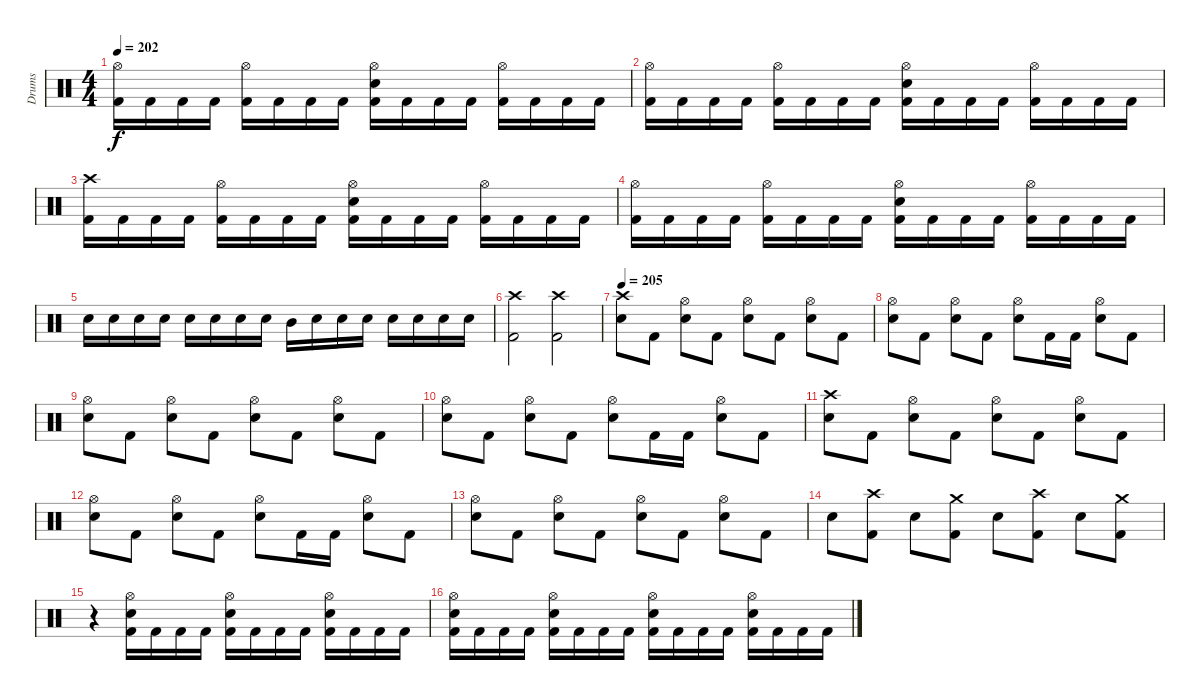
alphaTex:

\track ("Drums" "Drums") {instrument percussion}
\staff {score}
\articulation defaults
\ts (4 4)
\tempo 202
\clef neutral
\ks c
("Hi-Hat (open)" "Kick (hit) 2").16{dy f} "Kick (hit) 2".16 "Kick (hit) 2".16 "Kick (hit) 2".16 ("Hi-Hat (open)" "Kick (hit) 2").16 "Kick (hit) 2".16 "Kick (hit) 2".16 "Kick (hit) 2".16 ("Hi-Hat (open)" "Snare (hit) 2" "Kick (hit) 2").16 "Kick (hit) 2".16 "Kick (hit) 2".16 "Kick (hit) 2".16 ("Hi-Hat (open)" "Kick (hit) 2").16 "Kick (hit) 2".16 "Kick (hit) 2".16 "Kick (hit) 2".16 |
("Hi-Hat (open)" "Kick (hit) 2").16 "Kick (hit) 2".16 "Kick (hit) 2".16 "Kick (hit) 2".16 ("Hi-Hat (open)" "Kick (hit) 2").16 "Kick (hit) 2".16 "Kick (hit) 2".16 "Kick (hit) 2".16 ("Hi-Hat (open)" "Snare (hit) 2" "Kick (hit) 2").16 "Kick (hit) 2".16 "Kick (hit) 2".16 "Kick (hit) 2".16 ("Hi-Hat (open)" "Kick (hit) 2").16 "Kick (hit) 2".16 "Kick (hit) 2".16 "Kick (hit) 2".16 |
("Crash high (hit)" "Kick (hit) 2").16 "Kick (hit) 2".16 "Kick (hit) 2".16 "Kick (hit) 2".16 ("Hi-Hat (open)" "Kick (hit) 2").16 "Kick (hit) 2".16 "Kick (hit) 2".16 "Kick (hit) 2".16 ("Hi-Hat (open)" "Snare (hit) 2" "Kick (hit) 2").16 "Kick (hit) 2".16 "Kick (hit) 2".16 "Kick (hit) 2".16 ("Hi-Hat (open)" "Kick (hit) 2").16 "Kick (hit) 2".16 "Kick (hit) 2".16 "Kick (hit) 2".16 |
("Hi-Hat (open)" "Kick (hit) 2").16 "Kick (hit) 2".16 "Kick (hit) 2".16 "Kick (hit) 2".16 ("Hi-Hat (open)" "Kick (hit) 2").16 "Kick (hit) 2".16 "Kick (hit) 2".16 "Kick (hit) 2".16 ("Hi-Hat (open)" "Snare (hit) 2" "Kick (hit) 2").16 "Kick (hit) 2".16 "Kick (hit) 2".16 "Kick (hit) 2".16 ("Hi-Hat (open)" "Kick (hit) 2").16 "Kick (hit) 2".16 "Kick (hit) 2".16 "Kick (hit) 2".16 |
"Snare (hit) 2".16 "Snare (hit) 2".16 "Snare (hit) 2".16 "Snare (hit) 2".16 "Snare (hit) 2".16 "Snare (hit) 2".16 "Snare (hit) 2".16 "Snare (hit) 2".16 "Mid Tom (hit)".16 "Snare (hit) 2".16 "Snare (hit) 2".16 "Snare (hit) 2".16 "Snare (hit) 2".16 "Snare (hit) 2".16 "Snare (hit) 2".16 "Snare (hit) 2".16 |
("Crash high (hit)"{x} "Kick (hit) 2").2 ("Crash high (hit)"{x} "Kick (hit) 2").2 |
\tempo 205
("Crash high (hit)" "Snare (hit) 2").8 "Kick (hit) 2".8 ("Hi-Hat (open)" "Snare (hit) 2").8 "Kick (hit) 2".8 ("Hi-Hat (open)" "Snare (hit) 2").8 "Kick (hit) 2".8 ("Hi-Hat (open)" "Snare (hit) 2").8 "Kick (hit) 2".8 |
("Hi-Hat (open)" "Snare (hit) 2").8 "Kick (hit) 2".8 ("Hi-Hat (open)" "Snare (hit) 2").8 "Kick (hit) 2".8 ("Hi-Hat (open)" "Snare (hit) 2").8 "Kick (hit) 2".16 "Kick (hit) 2".16 ("Hi-Hat (open)" "Snare (hit) 2").8 "Kick (hit) 2".8 |
("Hi-Hat (open)" "Snare (hit) 2").8 "Kick (hit) 2".8 ("Hi-Hat (open)" "Snare (hit) 2").8 "Kick (hit) 2".8 ("Hi-Hat (open)" "Snare (hit) 2").8 "Kick (hit) 2".8 ("Hi-Hat (open)" "Snare (hit) 2").8 "Kick (hit) 2".8 |
("Hi-Hat (open)" "Snare (hit) 2").8 "Kick (hit) 2".8 ("Hi-Hat (open)" "Snare (hit) 2").8 "Kick (hit) 2".8 ("Hi-Hat (open)" "Snare (hit) 2").8 "Kick (hit) 2".16 "Kick (hit) 2".16 ("Hi-Hat (open)" "Snare (hit) 2").8 "Kick (hit) 2".8 |
("Crash high (hit)" "Snare (hit) 2").8 "Kick (hit) 2".8 ("Hi-Hat (open)" "Snare (hit) 2").8 "Kick (hit) 2".8 ("Hi-Hat (open)" "Snare (hit) 2").8 "Kick (hit) 2".8 ("Hi-Hat (open)" "Snare (hit) 2").8 "Kick (hit) 2".8 |
("Hi-Hat (open)" "Snare (hit) 2").8 "Kick (hit) 2".8 ("Hi-Hat (open)" "Snare (hit) 2").8 "Kick (hit) 2".8 ("Hi-Hat (open)" "Snare (hit) 2").8 "Kick (hit) 2".16 "Kick (hit) 2".16 ("Hi-Hat (open)" "Snare (hit) 2").8 "Kick (hit) 2".8 |
("Hi-Hat (open)" "Snare (hit) 2").8 "Kick (hit) 2".8 ("Hi-Hat (open)" "Snare (hit) 2").8 "Kick (hit) 2".8 ("Hi-Hat (open)" "Snare (hit) 2").8 "Kick (hit) 2".8 ("Hi-Hat (open)" "Snare (hit) 2").8 "Kick (hit) 2".8 |
"Snare (hit) 2".8 ("Crash high (hit)" "Kick (hit) 2").8 "Snare (hit) 2".8 ("Crash medium (hit)" "Kick (hit) 2").8 "Snare (hit) 2".8 ("Crash high (hit)" "Kick (hit) 2").8 "Snare (hit) 2".8 ("Crash medium (hit)" "Kick (hit) 2").8 |
r.4 ("Hi-Hat (open)" "Snare (hit) 2" "Kick (hit) 2").16 "Kick (hit) 2".16 "Kick (hit) 2".16 "Kick (hit) 2".16 ("Hi-Hat (open)" "Snare (hit) 2" "Kick (hit) 2").16 "Kick (hit) 2".16 "Kick (hit) 2".16 "Kick (hit) 2".16 ("Hi-Hat (open)" "Snare (hit) 2" "Kick (hit) 2").16 "Kick (hit) 2".16 "Kick (hit) 2".16 "Kick (hit) 2".16 |
("Hi-Hat (open)" "Snare (hit) 2" "Kick (hit) 2").16 "Kick (hit) 2".16 "Kick (hit) 2".16 "Kick (hit) 2".16 ("Hi-Hat (open)" "Snare (hit) 2" "Kick (hit) 2").16 "Kick (hit) 2".16 "Kick (hit) 2".16 "Kick (hit) 2".16 ("Hi-Hat (open)" "Snare (hit) 2" "Kick (hit) 2").16 "Kick (hit) 2".16 "Kick (hit) 2".16 "Kick (hit) 2".16 ("Hi-Hat (open)" "Snare (hit) 2" "Kick (hit) 2").16 "Kick (hit) 2".16 "Kick (hit) 2".16 "Kick (hit) 2".16
